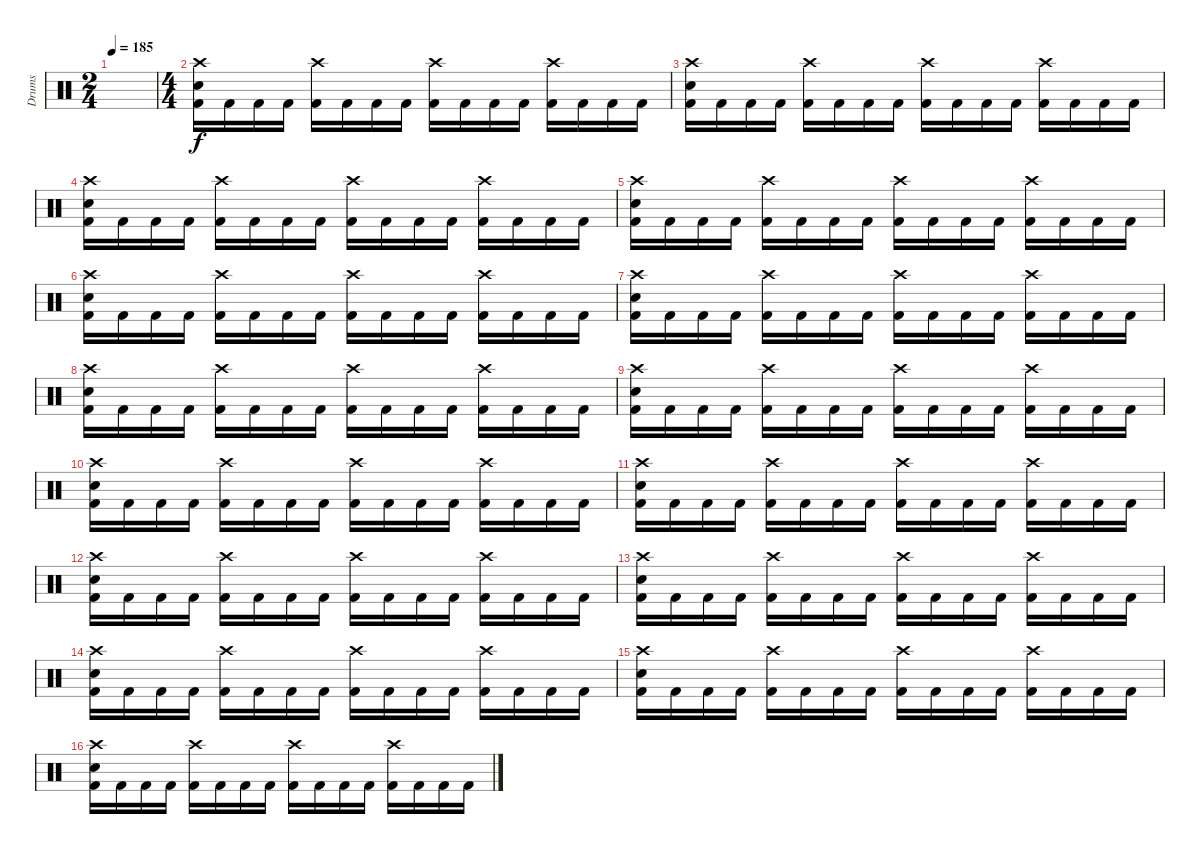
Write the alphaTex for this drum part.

\track ("Drums" "Drums") {instrument percussion}
\staff {score}
\articulation defaults
\ts (2 4)
\tempo 185
\clef neutral
\ks c
|
\ts (4 4)
("Crash high (hit)" "Electric Snare (hit)" "Kick (hit) 2").16 "Kick (hit) 2".16 "Kick (hit) 2".16 "Kick (hit) 2".16 ("Crash high (hit)" "Kick (hit) 2").16 "Kick (hit) 2".16 "Kick (hit) 2".16 "Kick (hit) 2".16 ("Crash high (hit)" "Kick (hit) 2").16 "Kick (hit) 2".16 "Kick (hit) 2".16 "Kick (hit) 2".16 ("Crash high (hit)" "Kick (hit) 2").16 "Kick (hit) 2".16 "Kick (hit) 2".16 "Kick (hit) 2".16 |
("Crash high (hit)" "Electric Snare (hit)" "Kick (hit) 2").16 "Kick (hit) 2".16 "Kick (hit) 2".16 "Kick (hit) 2".16 ("Crash high (hit)" "Kick (hit) 2").16 "Kick (hit) 2".16 "Kick (hit) 2".16 "Kick (hit) 2".16 ("Crash high (hit)" "Kick (hit) 2").16 "Kick (hit) 2".16 "Kick (hit) 2".16 "Kick (hit) 2".16 ("Crash high (hit)" "Kick (hit) 2").16 "Kick (hit) 2".16 "Kick (hit) 2".16 "Kick (hit) 2".16 |
("Crash high (hit)" "Electric Snare (hit)" "Kick (hit) 2").16 "Kick (hit) 2".16 "Kick (hit) 2".16 "Kick (hit) 2".16 ("Crash high (hit)" "Kick (hit) 2").16 "Kick (hit) 2".16 "Kick (hit) 2".16 "Kick (hit) 2".16 ("Crash high (hit)" "Kick (hit) 2").16 "Kick (hit) 2".16 "Kick (hit) 2".16 "Kick (hit) 2".16 ("Crash high (hit)" "Kick (hit) 2").16 "Kick (hit) 2".16 "Kick (hit) 2".16 "Kick (hit) 2".16 |
("Crash high (hit)" "Electric Snare (hit)" "Kick (hit) 2").16 "Kick (hit) 2".16 "Kick (hit) 2".16 "Kick (hit) 2".16 ("Crash high (hit)" "Kick (hit) 2").16 "Kick (hit) 2".16 "Kick (hit) 2".16 "Kick (hit) 2".16 ("Crash high (hit)" "Kick (hit) 2").16 "Kick (hit) 2".16 "Kick (hit) 2".16 "Kick (hit) 2".16 ("Crash high (hit)" "Kick (hit) 2").16 "Kick (hit) 2".16 "Kick (hit) 2".16 "Kick (hit) 2".16 |
("Crash high (hit)" "Electric Snare (hit)" "Kick (hit) 2").16 "Kick (hit) 2".16 "Kick (hit) 2".16 "Kick (hit) 2".16 ("Crash high (hit)" "Kick (hit) 2").16 "Kick (hit) 2".16 "Kick (hit) 2".16 "Kick (hit) 2".16 ("Crash high (hit)" "Kick (hit) 2").16 "Kick (hit) 2".16 "Kick (hit) 2".16 "Kick (hit) 2".16 ("Crash high (hit)" "Kick (hit) 2").16 "Kick (hit) 2".16 "Kick (hit) 2".16 "Kick (hit) 2".16 |
("Crash high (hit)" "Electric Snare (hit)" "Kick (hit) 2").16 "Kick (hit) 2".16 "Kick (hit) 2".16 "Kick (hit) 2".16 ("Crash high (hit)" "Kick (hit) 2").16 "Kick (hit) 2".16 "Kick (hit) 2".16 "Kick (hit) 2".16 ("Crash high (hit)" "Kick (hit) 2").16 "Kick (hit) 2".16 "Kick (hit) 2".16 "Kick (hit) 2".16 ("Crash high (hit)" "Kick (hit) 2").16 "Kick (hit) 2".16 "Kick (hit) 2".16 "Kick (hit) 2".16 |
("Crash high (hit)" "Electric Snare (hit)" "Kick (hit) 2").16 "Kick (hit) 2".16 "Kick (hit) 2".16 "Kick (hit) 2".16 ("Crash high (hit)" "Kick (hit) 2").16 "Kick (hit) 2".16 "Kick (hit) 2".16 "Kick (hit) 2".16 ("Crash high (hit)" "Kick (hit) 2").16 "Kick (hit) 2".16 "Kick (hit) 2".16 "Kick (hit) 2".16 ("Crash high (hit)" "Kick (hit) 2").16 "Kick (hit) 2".16 "Kick (hit) 2".16 "Kick (hit) 2".16 |
("Crash high (hit)" "Electric Snare (hit)" "Kick (hit) 2").16 "Kick (hit) 2".16 "Kick (hit) 2".16 "Kick (hit) 2".16 ("Crash high (hit)" "Kick (hit) 2").16 "Kick (hit) 2".16 "Kick (hit) 2".16 "Kick (hit) 2".16 ("Crash high (hit)" "Kick (hit) 2").16 "Kick (hit) 2".16 "Kick (hit) 2".16 "Kick (hit) 2".16 ("Crash high (hit)" "Kick (hit) 2").16 "Kick (hit) 2".16 "Kick (hit) 2".16 "Kick (hit) 2".16 |
("Crash high (hit)" "Electric Snare (hit)" "Kick (hit) 2").16 "Kick (hit) 2".16 "Kick (hit) 2".16 "Kick (hit) 2".16 ("Crash high (hit)" "Kick (hit) 2").16 "Kick (hit) 2".16 "Kick (hit) 2".16 "Kick (hit) 2".16 ("Crash high (hit)" "Kick (hit) 2").16 "Kick (hit) 2".16 "Kick (hit) 2".16 "Kick (hit) 2".16 ("Crash high (hit)" "Kick (hit) 2").16 "Kick (hit) 2".16 "Kick (hit) 2".16 "Kick (hit) 2".16 |
("Crash high (hit)" "Electric Snare (hit)" "Kick (hit) 2").16 "Kick (hit) 2".16 "Kick (hit) 2".16 "Kick (hit) 2".16 ("Crash high (hit)" "Kick (hit) 2").16 "Kick (hit) 2".16 "Kick (hit) 2".16 "Kick (hit) 2".16 ("Crash high (hit)" "Kick (hit) 2").16 "Kick (hit) 2".16 "Kick (hit) 2".16 "Kick (hit) 2".16 ("Crash high (hit)" "Kick (hit) 2").16 "Kick (hit) 2".16 "Kick (hit) 2".16 "Kick (hit) 2".16 |
("Crash high (hit)" "Electric Snare (hit)" "Kick (hit) 2").16 "Kick (hit) 2".16 "Kick (hit) 2".16 "Kick (hit) 2".16 ("Crash high (hit)" "Kick (hit) 2").16 "Kick (hit) 2".16 "Kick (hit) 2".16 "Kick (hit) 2".16 ("Crash high (hit)" "Kick (hit) 2").16 "Kick (hit) 2".16 "Kick (hit) 2".16 "Kick (hit) 2".16 ("Crash high (hit)" "Kick (hit) 2").16 "Kick (hit) 2".16 "Kick (hit) 2".16 "Kick (hit) 2".16 |
("Crash high (hit)" "Electric Snare (hit)" "Kick (hit) 2").16 "Kick (hit) 2".16 "Kick (hit) 2".16 "Kick (hit) 2".16 ("Crash high (hit)" "Kick (hit) 2").16 "Kick (hit) 2".16 "Kick (hit) 2".16 "Kick (hit) 2".16 ("Crash high (hit)" "Kick (hit) 2").16 "Kick (hit) 2".16 "Kick (hit) 2".16 "Kick (hit) 2".16 ("Crash high (hit)" "Kick (hit) 2").16 "Kick (hit) 2".16 "Kick (hit) 2".16 "Kick (hit) 2".16 |
("Crash high (hit)" "Electric Snare (hit)" "Kick (hit) 2").16 "Kick (hit) 2".16 "Kick (hit) 2".16 "Kick (hit) 2".16 ("Crash high (hit)" "Kick (hit) 2").16 "Kick (hit) 2".16 "Kick (hit) 2".16 "Kick (hit) 2".16 ("Crash high (hit)" "Kick (hit) 2").16 "Kick (hit) 2".16 "Kick (hit) 2".16 "Kick (hit) 2".16 ("Crash high (hit)" "Kick (hit) 2").16 "Kick (hit) 2".16 "Kick (hit) 2".16 "Kick (hit) 2".16 |
("Crash high (hit)" "Electric Snare (hit)" "Kick (hit) 2").16 "Kick (hit) 2".16 "Kick (hit) 2".16 "Kick (hit) 2".16 ("Crash high (hit)" "Kick (hit) 2").16 "Kick (hit) 2".16 "Kick (hit) 2".16 "Kick (hit) 2".16 ("Crash high (hit)" "Kick (hit) 2").16 "Kick (hit) 2".16 "Kick (hit) 2".16 "Kick (hit) 2".16 ("Crash high (hit)" "Kick (hit) 2").16 "Kick (hit) 2".16 "Kick (hit) 2".16 "Kick (hit) 2".16 |
("Crash high (hit)" "Electric Snare (hit)" "Kick (hit) 2").16 "Kick (hit) 2".16 "Kick (hit) 2".16 "Kick (hit) 2".16 ("Crash high (hit)" "Kick (hit) 2").16 "Kick (hit) 2".16 "Kick (hit) 2".16 "Kick (hit) 2".16 ("Crash high (hit)" "Kick (hit) 2").16 "Kick (hit) 2".16 "Kick (hit) 2".16 "Kick (hit) 2".16 ("Crash high (hit)" "Kick (hit) 2").16 "Kick (hit) 2".16 "Kick (hit) 2".16 "Kick (hit) 2".16
